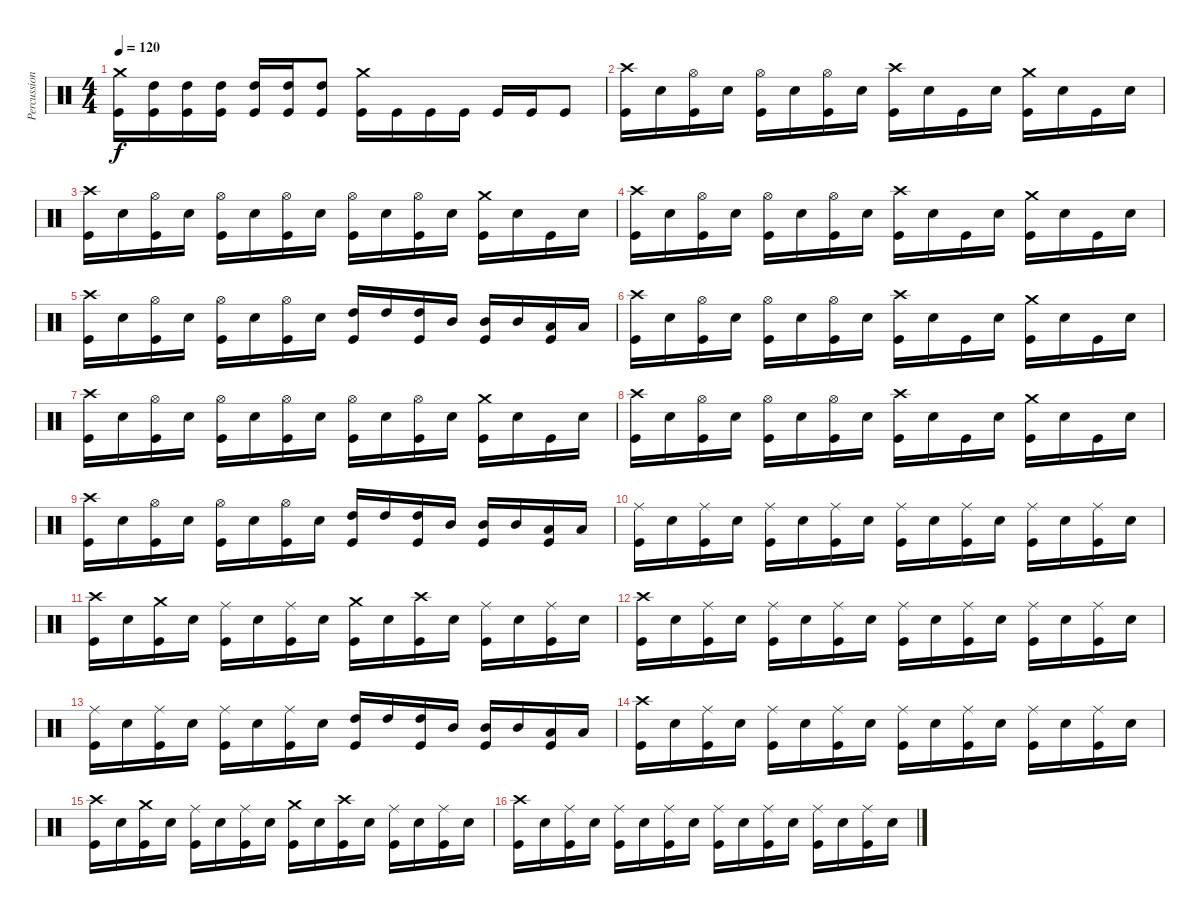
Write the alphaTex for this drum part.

\track ("Percussioni" "Percussion") {instrument percussion}
\staff {score}
\articulation defaults
\ts (4 4)
\tempo 120
\clef neutral
\ks c
("Crash medium (hit)" "Kick (hit)").16{dy f} ("High Tom (hit)" "Kick (hit)").16 ("High Tom (hit)" "Kick (hit)").16 ("High Tom (hit)" "Kick (hit)").16 ("High Tom (hit)" "Kick (hit)").16 ("High Tom (hit)" "Kick (hit)").16 ("High Tom (hit)" "Kick (hit)").8 ("Crash medium (hit)" "Kick (hit)").16 "Kick (hit)".16 "Kick (hit)".16 "Kick (hit)".16 "Kick (hit)".16 "Kick (hit)".16 "Kick (hit)".8 |
("Crash high (hit)" "Kick (hit)").16 "Electric Snare (hit)".16 ("Hi-Hat (open)" "Kick (hit)").16 "Electric Snare (hit)".16 ("Hi-Hat (open)" "Kick (hit)").16 "Electric Snare (hit)".16 ("Hi-Hat (open)" "Kick (hit)").16 "Electric Snare (hit)".16 ("Crash high (hit)" "Kick (hit)").16 "Electric Snare (hit)".16 "Kick (hit)".16 "Electric Snare (hit)".16 ("Crash medium (hit)" "Kick (hit)").16 "Electric Snare (hit)".16 "Kick (hit)".16 "Electric Snare (hit)".16 |
("Crash high (hit)" "Kick (hit)").16 "Electric Snare (hit)".16 ("Hi-Hat (open)" "Kick (hit)").16 "Electric Snare (hit)".16 ("Hi-Hat (open)" "Kick (hit)").16 "Electric Snare (hit)".16 ("Hi-Hat (open)" "Kick (hit)").16 "Electric Snare (hit)".16 ("Hi-Hat (open)" "Kick (hit)").16 "Electric Snare (hit)".16 ("Hi-Hat (open)" "Kick (hit)").16 "Electric Snare (hit)".16 ("Crash medium (hit)" "Kick (hit)").16 "Electric Snare (hit)".16 "Kick (hit)".16 "Electric Snare (hit)".16 |
("Crash high (hit)" "Kick (hit)").16 "Electric Snare (hit)".16 ("Hi-Hat (open)" "Kick (hit)").16 "Electric Snare (hit)".16 ("Hi-Hat (open)" "Kick (hit)").16 "Electric Snare (hit)".16 ("Hi-Hat (open)" "Kick (hit)").16 "Electric Snare (hit)".16 ("Crash high (hit)" "Kick (hit)").16 "Electric Snare (hit)".16 "Kick (hit)".16 "Electric Snare (hit)".16 ("Crash medium (hit)" "Kick (hit)").16 "Electric Snare (hit)".16 "Kick (hit)".16 "Electric Snare (hit)".16 |
("Crash high (hit)" "Kick (hit)").16 "Electric Snare (hit)".16 ("Hi-Hat (open)" "Kick (hit)").16 "Electric Snare (hit)".16 ("Hi-Hat (open)" "Kick (hit)").16 "Electric Snare (hit)".16 ("Hi-Hat (open)" "Kick (hit)").16 "Electric Snare (hit)".16 ("High Tom (hit)" "Kick (hit)").16 "High Tom (hit)".16 ("High Tom (hit)" "Kick (hit)").16 "Mid Tom (hit)".16 ("Mid Tom (hit)" "Kick (hit)").16 "Mid Tom (hit)".16 ("Low Tom (hit)" "Kick (hit)").16 "Low Tom (hit)".16 |
("Crash high (hit)" "Kick (hit)").16 "Electric Snare (hit)".16 ("Hi-Hat (open)" "Kick (hit)").16 "Electric Snare (hit)".16 ("Hi-Hat (open)" "Kick (hit)").16 "Electric Snare (hit)".16 ("Hi-Hat (open)" "Kick (hit)").16 "Electric Snare (hit)".16 ("Crash high (hit)" "Kick (hit)").16 "Electric Snare (hit)".16 "Kick (hit)".16 "Electric Snare (hit)".16 ("Crash medium (hit)" "Kick (hit)").16 "Electric Snare (hit)".16 "Kick (hit)".16 "Electric Snare (hit)".16 |
("Crash high (hit)" "Kick (hit)").16 "Electric Snare (hit)".16 ("Hi-Hat (open)" "Kick (hit)").16 "Electric Snare (hit)".16 ("Hi-Hat (open)" "Kick (hit)").16 "Electric Snare (hit)".16 ("Hi-Hat (open)" "Kick (hit)").16 "Electric Snare (hit)".16 ("Hi-Hat (open)" "Kick (hit)").16 "Electric Snare (hit)".16 ("Hi-Hat (open)" "Kick (hit)").16 "Electric Snare (hit)".16 ("Crash medium (hit)" "Kick (hit)").16 "Electric Snare (hit)".16 "Kick (hit)".16 "Electric Snare (hit)".16 |
("Crash high (hit)" "Kick (hit)").16 "Electric Snare (hit)".16 ("Hi-Hat (open)" "Kick (hit)").16 "Electric Snare (hit)".16 ("Hi-Hat (open)" "Kick (hit)").16 "Electric Snare (hit)".16 ("Hi-Hat (open)" "Kick (hit)").16 "Electric Snare (hit)".16 ("Crash high (hit)" "Kick (hit)").16 "Electric Snare (hit)".16 "Kick (hit)".16 "Electric Snare (hit)".16 ("Crash medium (hit)" "Kick (hit)").16 "Electric Snare (hit)".16 "Kick (hit)".16 "Electric Snare (hit)".16 |
("Crash high (hit)" "Kick (hit)").16 "Electric Snare (hit)".16 ("Hi-Hat (open)" "Kick (hit)").16 "Electric Snare (hit)".16 ("Hi-Hat (open)" "Kick (hit)").16 "Electric Snare (hit)".16 ("Hi-Hat (open)" "Kick (hit)").16 "Electric Snare (hit)".16 ("High Tom (hit)" "Kick (hit)").16 "High Tom (hit)".16 ("High Tom (hit)" "Kick (hit)").16 "Mid Tom (hit)".16 ("Mid Tom (hit)" "Kick (hit)").16 "Mid Tom (hit)".16 ("Low Tom (hit)" "Kick (hit)").16 "Low Tom (hit)".16 |
("Ride (middle)" "Kick (hit)").16 "Electric Snare (hit)".16 ("Ride (middle)" "Kick (hit)").16 "Electric Snare (hit)".16 ("Ride (middle)" "Kick (hit)").16 "Electric Snare (hit)".16 ("Ride (middle)" "Kick (hit)").16 "Electric Snare (hit)".16 ("Ride (middle)" "Kick (hit)").16 "Electric Snare (hit)".16 ("Ride (middle)" "Kick (hit)").16 "Electric Snare (hit)".16 ("Ride (middle)" "Kick (hit)").16 "Electric Snare (hit)".16 ("Ride (middle)" "Kick (hit)").16 "Electric Snare (hit)".16 |
("Crash high (hit)" "Kick (hit)").16 "Electric Snare (hit)".16 ("Crash medium (hit)" "Kick (hit)").16 "Electric Snare (hit)".16 ("Ride (middle)" "Kick (hit)").16 "Electric Snare (hit)".16 ("Ride (middle)" "Kick (hit)").16 "Electric Snare (hit)".16 ("Crash medium (hit)" "Kick (hit)").16 "Electric Snare (hit)".16 ("Crash high (hit)" "Kick (hit)").16 "Electric Snare (hit)".16 ("Ride (middle)" "Kick (hit)").16 "Electric Snare (hit)".16 ("Ride (middle)" "Kick (hit)").16 "Electric Snare (hit)".16 |
("Crash high (hit)" "Kick (hit)").16 "Electric Snare (hit)".16 ("Ride (middle)" "Kick (hit)").16 "Electric Snare (hit)".16 ("Ride (middle)" "Kick (hit)").16 "Electric Snare (hit)".16 ("Ride (middle)" "Kick (hit)").16 "Electric Snare (hit)".16 ("Ride (middle)" "Kick (hit)").16 "Electric Snare (hit)".16 ("Ride (middle)" "Kick (hit)").16 "Electric Snare (hit)".16 ("Ride (middle)" "Kick (hit)").16 "Electric Snare (hit)".16 ("Ride (middle)" "Kick (hit)").16 "Electric Snare (hit)".16 |
("Ride (middle)" "Kick (hit)").16 "Electric Snare (hit)".16 ("Ride (middle)" "Kick (hit)").16 "Electric Snare (hit)".16 ("Ride (middle)" "Kick (hit)").16 "Electric Snare (hit)".16 ("Ride (middle)" "Kick (hit)").16 "Electric Snare (hit)".16 ("High Tom (hit)" "Kick (hit)").16 "High Tom (hit)".16 ("High Tom (hit)" "Kick (hit)").16 "Mid Tom (hit)".16 ("Mid Tom (hit)" "Kick (hit)").16 "Mid Tom (hit)".16 ("Low Tom (hit)" "Kick (hit)").16 "Low Tom (hit)".16 |
("Crash high (hit)" "Kick (hit)").16 "Electric Snare (hit)".16 ("Ride (middle)" "Kick (hit)").16 "Electric Snare (hit)".16 ("Ride (middle)" "Kick (hit)").16 "Electric Snare (hit)".16 ("Ride (middle)" "Kick (hit)").16 "Electric Snare (hit)".16 ("Ride (middle)" "Kick (hit)").16 "Electric Snare (hit)".16 ("Ride (middle)" "Kick (hit)").16 "Electric Snare (hit)".16 ("Ride (middle)" "Kick (hit)").16 "Electric Snare (hit)".16 ("Ride (middle)" "Kick (hit)").16 "Electric Snare (hit)".16 |
("Crash high (hit)" "Kick (hit)").16 "Electric Snare (hit)".16 ("Crash medium (hit)" "Kick (hit)").16 "Electric Snare (hit)".16 ("Ride (middle)" "Kick (hit)").16 "Electric Snare (hit)".16 ("Ride (middle)" "Kick (hit)").16 "Electric Snare (hit)".16 ("Crash medium (hit)" "Kick (hit)").16 "Electric Snare (hit)".16 ("Crash high (hit)" "Kick (hit)").16 "Electric Snare (hit)".16 ("Ride (middle)" "Kick (hit)").16 "Electric Snare (hit)".16 ("Ride (middle)" "Kick (hit)").16 "Electric Snare (hit)".16 |
("Crash high (hit)" "Kick (hit)").16 "Electric Snare (hit)".16 ("Ride (middle)" "Kick (hit)").16 "Electric Snare (hit)".16 ("Ride (middle)" "Kick (hit)").16 "Electric Snare (hit)".16 ("Ride (middle)" "Kick (hit)").16 "Electric Snare (hit)".16 ("Ride (middle)" "Kick (hit)").16 "Electric Snare (hit)".16 ("Ride (middle)" "Kick (hit)").16 "Electric Snare (hit)".16 ("Ride (middle)" "Kick (hit)").16 "Electric Snare (hit)".16 ("Ride (middle)" "Kick (hit)").16 "Electric Snare (hit)".16
